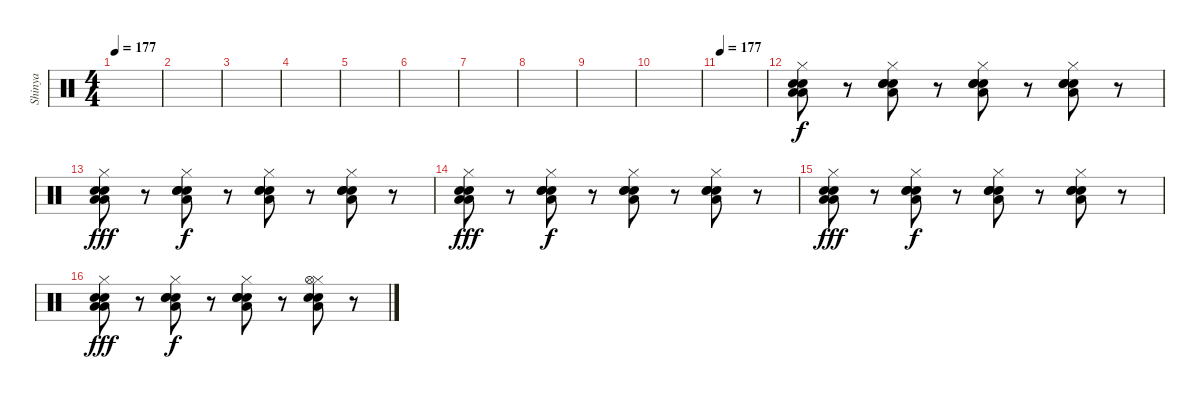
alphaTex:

\track ("Shinya " "Shinya ") {instrument percussion}
\staff {score}
\articulation defaults
\ts (4 4)
\tempo 177
\clef neutral
\ks c
|
|
|
|
|
|
|
|
|
|
\tempo 177
|
("Hi-Hat (closed)" "Electric Snare (hit)" "Low Tom (hit)" "Electric Snare (hit)" "Low Tom (hit)").8 r.8 ("Hi-Hat (closed)" "Electric Snare (hit)" "Low Tom (hit)" "Electric Snare (hit)" "Snare (hit) 2").8{dy f} r.8 ("Hi-Hat (closed)" "Electric Snare (hit)" "Electric Snare (hit)" "Snare (hit) 2" "Low Tom (hit)").8 r.8 ("Hi-Hat (closed)" "Electric Snare (hit)" "Electric Snare (hit)" "Electric Snare (hit)" "Low Tom (hit)").8 r.8 |
("Hi-Hat (closed)" "Electric Snare (hit)" "Low Tom (hit)" "Electric Snare (hit)" "Low Tom (hit)").8{dy fff} r.8 ("Hi-Hat (closed)" "Electric Snare (hit)" "Low Tom (hit)" "Electric Snare (hit)" "Snare (hit) 2").8{dy f} r.8 ("Hi-Hat (closed)" "Electric Snare (hit)" "Electric Snare (hit)" "Snare (hit) 2" "Low Tom (hit)").8 r.8 ("Hi-Hat (closed)" "Electric Snare (hit)" "Electric Snare (hit)" "Low Tom (hit)" "Electric Snare (hit)").8 r.8 |
("Hi-Hat (closed)" "Electric Snare (hit)" "Low Tom (hit)" "Electric Snare (hit)" "Low Tom (hit)").8{dy fff} r.8 ("Hi-Hat (closed)" "Electric Snare (hit)" "Low Tom (hit)" "Electric Snare (hit)" "Snare (hit) 2").8{dy f} r.8 ("Hi-Hat (closed)" "Electric Snare (hit)" "Electric Snare (hit)" "Snare (hit) 2" "Low Tom (hit)").8 r.8 ("Hi-Hat (closed)" "Electric Snare (hit)" "Electric Snare (hit)" "Electric Snare (hit)" "Low Tom (hit)").8 r.8 |
("Hi-Hat (closed)" "Electric Snare (hit)" "Low Tom (hit)" "Electric Snare (hit)" "Low Tom (hit)").8{dy fff} r.8 ("Hi-Hat (closed)" "Electric Snare (hit)" "Low Tom (hit)" "Electric Snare (hit)" "Snare (hit) 2").8{dy f} r.8 ("Hi-Hat (closed)" "Electric Snare (hit)" "Electric Snare (hit)" "Snare (hit) 2" "Low Tom (hit)").8 r.8 ("Hi-Hat (closed)" "Electric Snare (hit)" "Electric Snare (hit)" "Low Tom (hit)" "Electric Snare (hit)").8 r.8 |
("Hi-Hat (closed)" "Electric Snare (hit)" "Low Tom (hit)" "Electric Snare (hit)" "Low Tom (hit)").8{dy fff} r.8 ("Hi-Hat (closed)" "Electric Snare (hit)" "Low Tom (hit)" "Electric Snare (hit)" "Snare (hit) 2").8{dy f} r.8 ("Hi-Hat (closed)" "Electric Snare (hit)" "Electric Snare (hit)" "Snare (hit) 2" "Low Tom (hit)").8 r.8 ("Hi-Hat (closed)" "Hi-Hat (open)" "Electric Snare (hit)" "Electric Snare (hit)" "Low Tom (hit)").8 r.8
